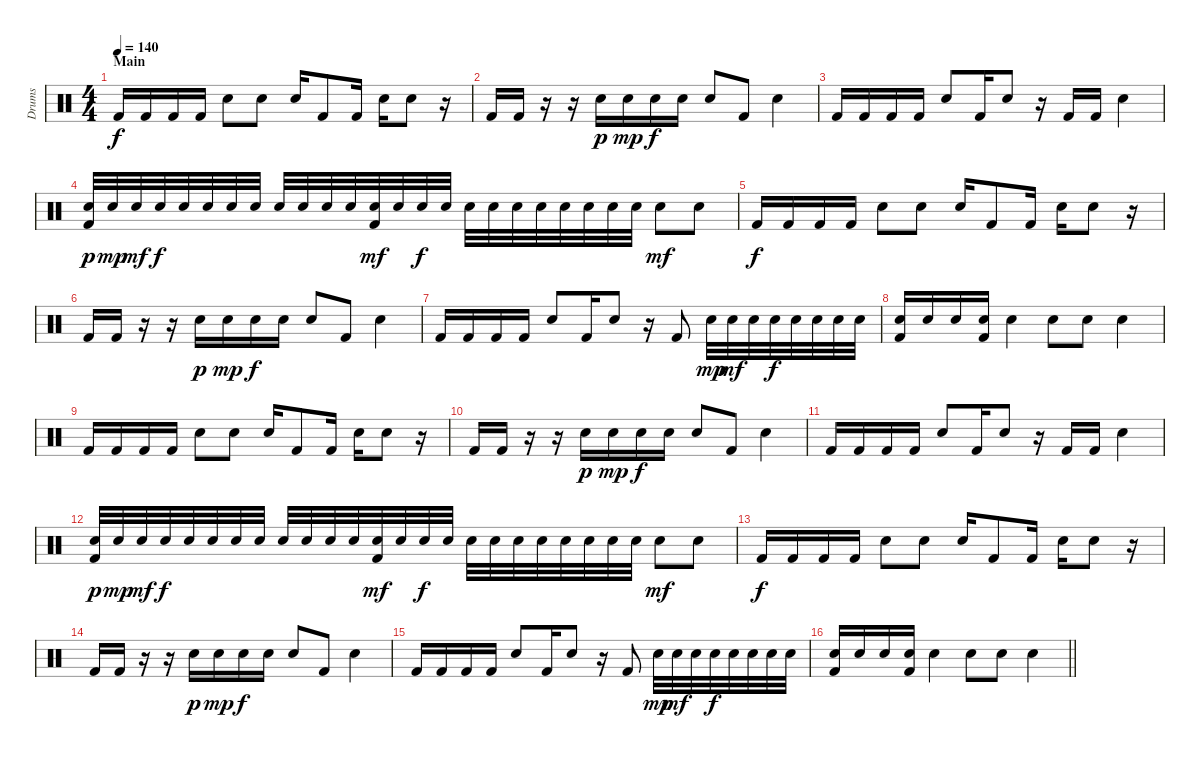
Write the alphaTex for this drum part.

\track ("Drums" "Drums") {instrument percussion}
\staff {score}
\articulation defaults
\ts (4 4)
\section ("" "Main")
\tempo 140
\clef neutral
\ks c "Kick (hit) 2".16{dy f} "Kick (hit) 2".16 "Kick (hit) 2".16 "Kick (hit) 2".16 "Electric Snare (hit)".8 "Electric Snare (hit)".8 "Electric Snare (hit)".16 "Kick (hit) 2".8 "Kick (hit) 2".16 "Electric Snare (hit)".16 "Electric Snare (hit)".8
r.16 |
"Kick (hit) 2".16 "Kick (hit) 2".16 r.16 r.16 "Electric Snare (hit)".16{dy p} "Electric Snare (hit)".16{dy mp} "Electric Snare (hit)".16{dy f} "Electric Snare (hit)".16 "Electric Snare (hit)".8 "Kick (hit) 2".8 "Electric Snare (hit)".4 |
"Kick (hit) 2".16 "Kick (hit) 2".16 "Kick (hit) 2".16 "Kick (hit) 2".16 "Electric Snare (hit)".8 "Kick (hit) 2".16 "Electric Snare (hit)".8 r.16 "Kick (hit) 2".16 "Kick (hit) 2".16 "Electric Snare (hit)".4 |
("Electric Snare (hit)" "Kick (hit) 2").32{dy p} "Electric Snare (hit)".32{dy mp} "Electric Snare (hit)".32{dy mf} "Electric Snare (hit)".32{dy f} "Electric Snare (hit)".32 "Electric Snare (hit)".32 "Electric Snare (hit)".32 "Electric Snare (hit)".32 "Electric Snare (hit)".32 "Electric Snare (hit)".32 "Electric Snare (hit)".32 "Electric Snare (hit)".32 ("Electric Snare (hit)" "Kick (hit) 2").32{dy mf} "Electric Snare (hit)".32 "Electric Snare (hit)".32{dy f} "Electric Snare (hit)".32 "Electric Snare (hit)".32 "Electric Snare (hit)".32 "Electric Snare (hit)".32 "Electric Snare (hit)".32 "Electric Snare (hit)".32 "Electric Snare (hit)".32 "Electric Snare (hit)".32 "Electric Snare (hit)".32 "Electric Snare (hit)".8{dy mf} "Electric Snare (hit)".8 |
"Kick (hit) 2".16{dy f} "Kick (hit) 2".16 "Kick (hit) 2".16 "Kick (hit) 2".16 "Electric Snare (hit)".8 "Electric Snare (hit)".8 "Electric Snare (hit)".16 "Kick (hit) 2".8 "Kick (hit) 2".16 "Electric Snare (hit)".16 "Electric Snare (hit)".8 r.16 |
"Kick (hit) 2".16 "Kick (hit) 2".16 r.16 r.16 "Electric Snare (hit)".16{dy p} "Electric Snare (hit)".16{dy mp} "Electric Snare (hit)".16{dy f} "Electric Snare (hit)".16 "Electric Snare (hit)".8 "Kick (hit) 2".8 "Electric Snare (hit)".4 |
"Kick (hit) 2".16 "Kick (hit) 2".16 "Kick (hit) 2".16 "Kick (hit) 2".16 "Electric Snare (hit)".8 "Kick (hit) 2".16 "Electric Snare (hit)".8 r.16 "Kick (hit) 2".8 "Electric Snare (hit)".32{dy mp} "Electric Snare (hit)".32{dy mf} "Electric Snare (hit)".32 "Electric Snare (hit)".32{dy f} "Electric Snare (hit)".32 "Electric Snare (hit)".32 "Electric Snare (hit)".32 "Electric Snare (hit)".32 |
("Electric Snare (hit)" "Kick (hit) 2").16 "Electric Snare (hit)".16 "Electric Snare (hit)".16 ("Electric Snare (hit)" "Kick (hit) 2").16 "Electric Snare (hit)".4 "Electric Snare (hit)".8 "Electric Snare (hit)".8 "Electric Snare (hit)".4 |
"Kick (hit) 2".16 "Kick (hit) 2".16 "Kick (hit) 2".16 "Kick (hit) 2".16 "Electric Snare (hit)".8 "Electric Snare (hit)".8 "Electric Snare (hit)".16 "Kick (hit) 2".8 "Kick (hit) 2".16 "Electric Snare (hit)".16 "Electric Snare (hit)".8 r.16 |
"Kick (hit) 2".16 "Kick (hit) 2".16 r.16 r.16 "Electric Snare (hit)".16{dy p} "Electric Snare (hit)".16{dy mp} "Electric Snare (hit)".16{dy f} "Electric Snare (hit)".16 "Electric Snare (hit)".8 "Kick (hit) 2".8 "Electric Snare (hit)".4 |
"Kick (hit) 2".16 "Kick (hit) 2".16 "Kick (hit) 2".16 "Kick (hit) 2".16 "Electric Snare (hit)".8 "Kick (hit) 2".16 "Electric Snare (hit)".8 r.16 "Kick (hit) 2".16 "Kick (hit) 2".16 "Electric Snare (hit)".4 |
("Electric Snare (hit)" "Kick (hit) 2").32{dy p} "Electric Snare (hit)".32{dy mp} "Electric Snare (hit)".32{dy mf} "Electric Snare (hit)".32{dy f} "Electric Snare (hit)".32 "Electric Snare (hit)".32 "Electric Snare (hit)".32 "Electric Snare (hit)".32 "Electric Snare (hit)".32 "Electric Snare (hit)".32 "Electric Snare (hit)".32 "Electric Snare (hit)".32 ("Electric Snare (hit)" "Kick (hit) 2").32{dy mf} "Electric Snare (hit)".32 "Electric Snare (hit)".32{dy f} "Electric Snare (hit)".32 "Electric Snare (hit)".32 "Electric Snare (hit)".32 "Electric Snare (hit)".32 "Electric Snare (hit)".32 "Electric Snare (hit)".32 "Electric Snare (hit)".32 "Electric Snare (hit)".32 "Electric Snare (hit)".32 "Electric Snare (hit)".8{dy mf} "Electric Snare (hit)".8 |
"Kick (hit) 2".16{dy f} "Kick (hit) 2".16 "Kick (hit) 2".16 "Kick (hit) 2".16 "Electric Snare (hit)".8 "Electric Snare (hit)".8 "Electric Snare (hit)".16 "Kick (hit) 2".8 "Kick (hit) 2".16 "Electric Snare (hit)".16 "Electric Snare (hit)".8 r.16 |
"Kick (hit) 2".16 "Kick (hit) 2".16 r.16 r.16 "Electric Snare (hit)".16{dy p} "Electric Snare (hit)".16{dy mp} "Electric Snare (hit)".16{dy f} "Electric Snare (hit)".16 "Electric Snare (hit)".8 "Kick (hit) 2".8 "Electric Snare (hit)".4 |
"Kick (hit) 2".16 "Kick (hit) 2".16 "Kick (hit) 2".16 "Kick (hit) 2".16 "Electric Snare (hit)".8 "Kick (hit) 2".16 "Electric Snare (hit)".8 r.16 "Kick (hit) 2".8 "Electric Snare (hit)".32{dy mp} "Electric Snare (hit)".32{dy mf} "Electric Snare (hit)".32 "Electric Snare (hit)".32{dy f} "Electric Snare (hit)".32 "Electric Snare (hit)".32 "Electric Snare (hit)".32 "Electric Snare (hit)".32 |
\barLineRight lightlight
("Electric Snare (hit)" "Kick (hit) 2").16 "Electric Snare (hit)".16 "Electric Snare (hit)".16 ("Electric Snare (hit)" "Kick (hit) 2").16 "Electric Snare (hit)".4 "Electric Snare (hit)".8 "Electric Snare (hit)".8 "Electric Snare (hit)".4
